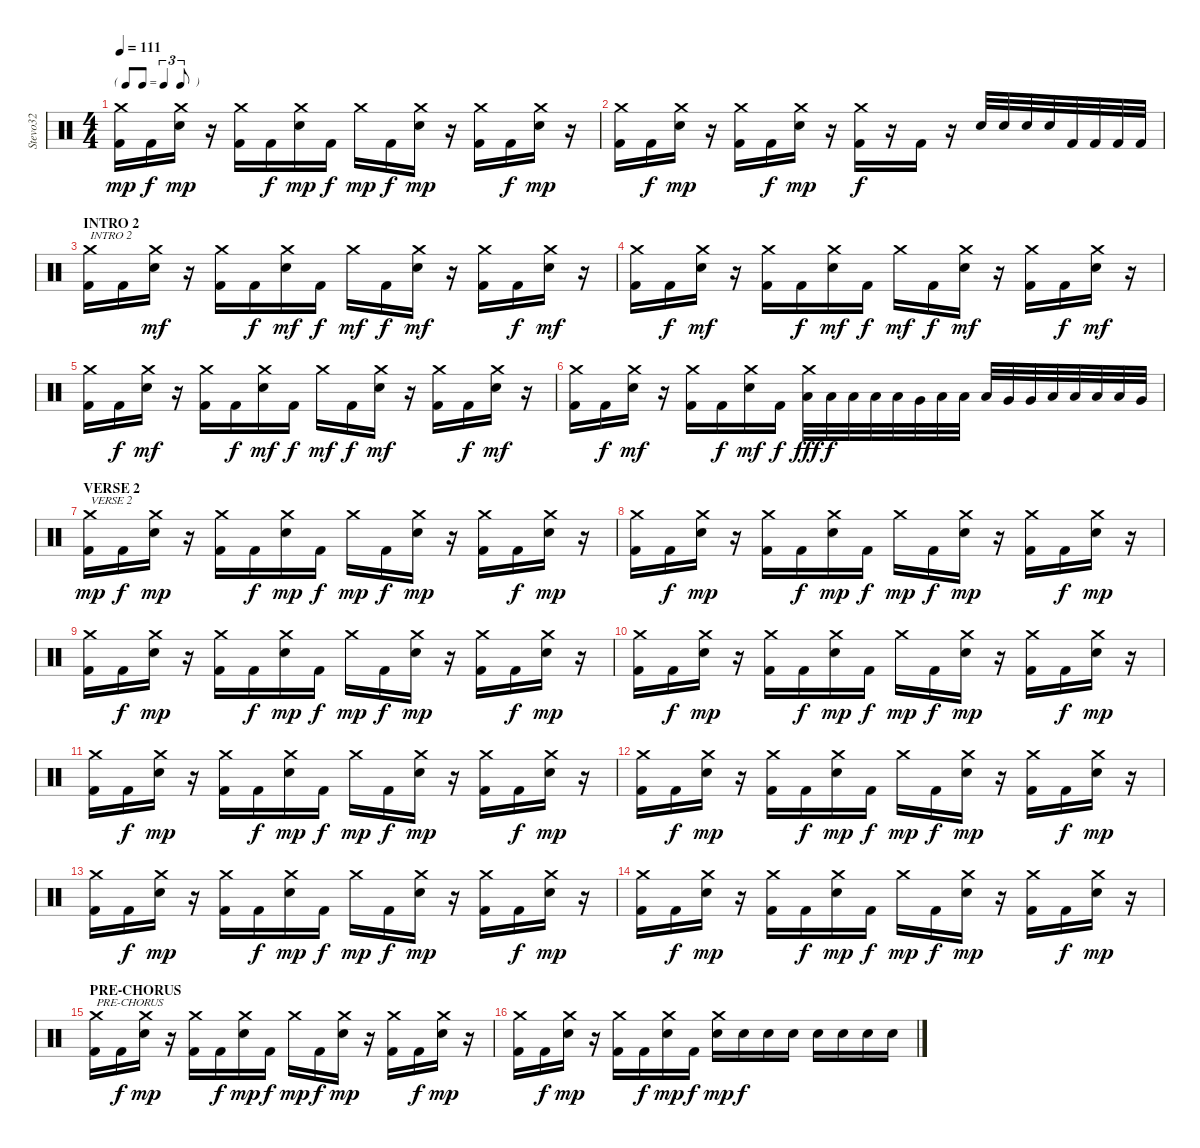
\track ("Stevo32" "Stevo32") {instrument percussion}
\staff {score}
\articulation defaults
\ts (4 4)
\tf triplet8th
\tempo 111
\clef neutral
\ks c
("Crash medium (hit)" "Kick (hit) 2").16{dy mp} "Kick (hit) 2".16{dy f} ("Crash medium (hit)" "Electric Snare (hit)").16{dy mp} r.16 ("Crash medium (hit)" "Kick (hit) 2").16 "Kick (hit) 2".16{dy f} ("Crash medium (hit)" "Electric Snare (hit)").16{dy mp} "Kick (hit) 2".16{dy f} "Crash medium (hit)".16{dy mp} "Kick (hit) 2".16{dy f} ("Crash medium (hit)" "Electric Snare (hit)").16{dy mp} r.16 ("Crash medium (hit)" "Kick (hit) 2").16 "Kick (hit) 2".16{dy f} ("Crash medium (hit)" "Electric Snare (hit)").16{dy mp} r.16 |
("Crash medium (hit)" "Kick (hit) 2").16 "Kick (hit) 2".16{dy f} ("Crash medium (hit)" "Electric Snare (hit)").16{dy mp} r.16 ("Crash medium (hit)" "Kick (hit) 2").16 "Kick (hit) 2".16{dy f} ("Crash medium (hit)" "Electric Snare (hit)").16{dy mp} r.16 ("Crash medium (hit)" "Kick (hit) 2").16{dy f} r.16 "Kick (hit) 2".16 r.16 "Electric Snare (hit)".32 "Electric Snare (hit)".32 "Electric Snare (hit)".32 "Electric Snare (hit)".32 "Kick (hit) 2".32 "Kick (hit) 2".32 "Kick (hit) 2".32 "Kick (hit) 2".32 |
\section ("" "INTRO 2")
("Crash medium (hit)" "Kick (hit) 2").16{txt "INTRO 2"} "Kick (hit) 2".16 ("Crash medium (hit)" "Electric Snare (hit)").16{dy mf} r.16 ("Crash medium (hit)" "Kick (hit) 2").16 "Kick (hit) 2".16{dy f} ("Crash medium (hit)" "Electric Snare (hit)").16{dy mf} "Kick (hit) 2".16{dy f} "Crash medium (hit)".16{dy mf} "Kick (hit) 2".16{dy f} ("Crash medium (hit)" "Electric Snare (hit)").16{dy mf} r.16 ("Crash medium (hit)" "Kick (hit) 2").16 "Kick (hit) 2".16{dy f} ("Crash medium (hit)" "Electric Snare (hit)").16{dy mf} r.16 |
("Crash medium (hit)" "Kick (hit) 2").16 "Kick (hit) 2".16{dy f} ("Crash medium (hit)" "Electric Snare (hit)").16{dy mf} r.16 ("Crash medium (hit)" "Kick (hit) 2").16 "Kick (hit) 2".16{dy f} ("Crash medium (hit)" "Electric Snare (hit)").16{dy mf} "Kick (hit) 2".16{dy f} "Crash medium (hit)".16{dy mf} "Kick (hit) 2".16{dy f} ("Crash medium (hit)" "Electric Snare (hit)").16{dy mf} r.16 ("Crash medium (hit)" "Kick (hit) 2").16 "Kick (hit) 2".16{dy f} ("Crash medium (hit)" "Electric Snare (hit)").16{dy mf} r.16 |
("Crash medium (hit)" "Kick (hit) 2").16 "Kick (hit) 2".16{dy f} ("Crash medium (hit)" "Electric Snare (hit)").16{dy mf} r.16 ("Crash medium (hit)" "Kick (hit) 2").16 "Kick (hit) 2".16{dy f} ("Crash medium (hit)" "Electric Snare (hit)").16{dy mf} "Kick (hit) 2".16{dy f} "Crash medium (hit)".16{dy mf} "Kick (hit) 2".16{dy f} ("Crash medium (hit)" "Electric Snare (hit)").16{dy mf} r.16 ("Crash medium (hit)" "Kick (hit) 2").16 "Kick (hit) 2".16{dy f} ("Crash medium (hit)" "Electric Snare (hit)").16{dy mf} r.16 |
("Crash medium (hit)" "Kick (hit) 2").16 "Kick (hit) 2".16{dy f} ("Crash medium (hit)" "Electric Snare (hit)").16{dy mf} r.16 ("Crash medium (hit)" "Kick (hit) 2").16 "Kick (hit) 2".16{dy f} ("Crash medium (hit)" "Electric Snare (hit)").16{dy mf} "Kick (hit) 2".16{dy f} ("Crash medium (hit)" "Low Floor Tom (hit)").32{dy fff} "Low Floor Tom (hit)".32{dy f} "Low Floor Tom (hit)".32 "Low Floor Tom (hit)".32 "Low Floor Tom (hit)".32 "Very Low Tom (hit)".32 "Low Floor Tom (hit)".32 "Low Floor Tom (hit)".32 "Low Floor Tom (hit)".32 "Very Low Tom (hit)".32 "Very Low Tom (hit)".32 "Low Floor Tom (hit)".32 "Low Floor Tom (hit)".32 "Low Floor Tom (hit)".32 "Low Floor Tom (hit)".32 "Very Low Tom (hit)".32 |
\section ("" "VERSE 2")
("Crash medium (hit)" "Kick (hit) 2").16{txt "VERSE 2" dy mp} "Kick (hit) 2".16{dy f} ("Crash medium (hit)" "Electric Snare (hit)").16{dy mp} r.16 ("Crash medium (hit)" "Kick (hit) 2").16 "Kick (hit) 2".16{dy f} ("Crash medium (hit)" "Electric Snare (hit)").16{dy mp} "Kick (hit) 2".16{dy f} "Crash medium (hit)".16{dy mp} "Kick (hit) 2".16{dy f} ("Crash medium (hit)" "Electric Snare (hit)").16{dy mp} r.16 ("Crash medium (hit)" "Kick (hit) 2").16 "Kick (hit) 2".16{dy f} ("Crash medium (hit)" "Electric Snare (hit)").16{dy mp} r.16 |
("Crash medium (hit)" "Kick (hit) 2").16 "Kick (hit) 2".16{dy f} ("Crash medium (hit)" "Electric Snare (hit)").16{dy mp} r.16 ("Crash medium (hit)" "Kick (hit) 2").16 "Kick (hit) 2".16{dy f} ("Crash medium (hit)" "Electric Snare (hit)").16{dy mp} "Kick (hit) 2".16{dy f} "Crash medium (hit)".16{dy mp} "Kick (hit) 2".16{dy f} ("Crash medium (hit)" "Electric Snare (hit)").16{dy mp} r.16 ("Crash medium (hit)" "Kick (hit) 2").16 "Kick (hit) 2".16{dy f} ("Crash medium (hit)" "Electric Snare (hit)").16{dy mp} r.16 |
("Crash medium (hit)" "Kick (hit) 2").16 "Kick (hit) 2".16{dy f} ("Crash medium (hit)" "Electric Snare (hit)").16{dy mp} r.16 ("Crash medium (hit)" "Kick (hit) 2").16 "Kick (hit) 2".16{dy f} ("Crash medium (hit)" "Electric Snare (hit)").16{dy mp} "Kick (hit) 2".16{dy f} "Crash medium (hit)".16{dy mp} "Kick (hit) 2".16{dy f} ("Crash medium (hit)" "Electric Snare (hit)").16{dy mp} r.16 ("Crash medium (hit)" "Kick (hit) 2").16 "Kick (hit) 2".16{dy f} ("Crash medium (hit)" "Electric Snare (hit)").16{dy mp} r.16 |
("Crash medium (hit)" "Kick (hit) 2").16 "Kick (hit) 2".16{dy f} ("Crash medium (hit)" "Electric Snare (hit)").16{dy mp} r.16 ("Crash medium (hit)" "Kick (hit) 2").16 "Kick (hit) 2".16{dy f} ("Crash medium (hit)" "Electric Snare (hit)").16{dy mp} "Kick (hit) 2".16{dy f} "Crash medium (hit)".16{dy mp} "Kick (hit) 2".16{dy f} ("Crash medium (hit)" "Electric Snare (hit)").16{dy mp} r.16 ("Crash medium (hit)" "Kick (hit) 2").16 "Kick (hit) 2".16{dy f} ("Crash medium (hit)" "Electric Snare (hit)").16{dy mp} r.16 |
("Crash medium (hit)" "Kick (hit) 2").16 "Kick (hit) 2".16{dy f} ("Crash medium (hit)" "Electric Snare (hit)").16{dy mp} r.16 ("Crash medium (hit)" "Kick (hit) 2").16 "Kick (hit) 2".16{dy f} ("Crash medium (hit)" "Electric Snare (hit)").16{dy mp} "Kick (hit) 2".16{dy f} "Crash medium (hit)".16{dy mp} "Kick (hit) 2".16{dy f} ("Crash medium (hit)" "Electric Snare (hit)").16{dy mp} r.16 ("Crash medium (hit)" "Kick (hit) 2").16 "Kick (hit) 2".16{dy f} ("Crash medium (hit)" "Electric Snare (hit)").16{dy mp} r.16 |
("Crash medium (hit)" "Kick (hit) 2").16 "Kick (hit) 2".16{dy f} ("Crash medium (hit)" "Electric Snare (hit)").16{dy mp} r.16 ("Crash medium (hit)" "Kick (hit) 2").16 "Kick (hit) 2".16{dy f} ("Crash medium (hit)" "Electric Snare (hit)").16{dy mp} "Kick (hit) 2".16{dy f} "Crash medium (hit)".16{dy mp} "Kick (hit) 2".16{dy f} ("Crash medium (hit)" "Electric Snare (hit)").16{dy mp} r.16 ("Crash medium (hit)" "Kick (hit) 2").16 "Kick (hit) 2".16{dy f} ("Crash medium (hit)" "Electric Snare (hit)").16{dy mp} r.16 |
("Crash medium (hit)" "Kick (hit) 2").16 "Kick (hit) 2".16{dy f} ("Crash medium (hit)" "Electric Snare (hit)").16{dy mp} r.16 ("Crash medium (hit)" "Kick (hit) 2").16 "Kick (hit) 2".16{dy f} ("Crash medium (hit)" "Electric Snare (hit)").16{dy mp} "Kick (hit) 2".16{dy f} "Crash medium (hit)".16{dy mp} "Kick (hit) 2".16{dy f} ("Crash medium (hit)" "Electric Snare (hit)").16{dy mp} r.16 ("Crash medium (hit)" "Kick (hit) 2").16 "Kick (hit) 2".16{dy f} ("Crash medium (hit)" "Electric Snare (hit)").16{dy mp} r.16 |
("Crash medium (hit)" "Kick (hit) 2").16 "Kick (hit) 2".16{dy f} ("Crash medium (hit)" "Electric Snare (hit)").16{dy mp} r.16 ("Crash medium (hit)" "Kick (hit) 2").16 "Kick (hit) 2".16{dy f} ("Crash medium (hit)" "Electric Snare (hit)").16{dy mp} "Kick (hit) 2".16{dy f} "Crash medium (hit)".16{dy mp} "Kick (hit) 2".16{dy f} ("Crash medium (hit)" "Electric Snare (hit)").16{dy mp} r.16 ("Crash medium (hit)" "Kick (hit) 2").16 "Kick (hit) 2".16{dy f} ("Crash medium (hit)" "Electric Snare (hit)").16{dy mp} r.16 |
\section ("" "PRE-CHORUS")
("Crash medium (hit)" "Kick (hit) 2").16{txt "PRE-CHORUS"} "Kick (hit) 2".16{dy f} ("Crash medium (hit)" "Electric Snare (hit)").16{dy mp} r.16 ("Crash medium (hit)" "Kick (hit) 2").16 "Kick (hit) 2".16{dy f} ("Crash medium (hit)" "Electric Snare (hit)").16{dy mp} "Kick (hit) 2".16{dy f} "Crash medium (hit)".16{dy mp} "Kick (hit) 2".16{dy f} ("Crash medium (hit)" "Electric Snare (hit)").16{dy mp} r.16 ("Crash medium (hit)" "Kick (hit) 2").16 "Kick (hit) 2".16{dy f} ("Crash medium (hit)" "Electric Snare (hit)").16{dy mp} r.16 |
("Crash medium (hit)" "Kick (hit) 2").16 "Kick (hit) 2".16{dy f} ("Crash medium (hit)" "Electric Snare (hit)").16{dy mp} r.16 ("Crash medium (hit)" "Kick (hit) 2").16 "Kick (hit) 2".16{dy f} ("Crash medium (hit)" "Electric Snare (hit)").16{dy mp} "Kick (hit) 2".16{dy f} ("Crash medium (hit)" "Electric Snare (hit)").16{dy mp} "Electric Snare (hit)".16{dy f} "Electric Snare (hit)".16 "Electric Snare (hit)".16 "Electric Snare (hit)".16 "Electric Snare (hit)".16 "Electric Snare (hit)".16 "Electric Snare (hit)".16
